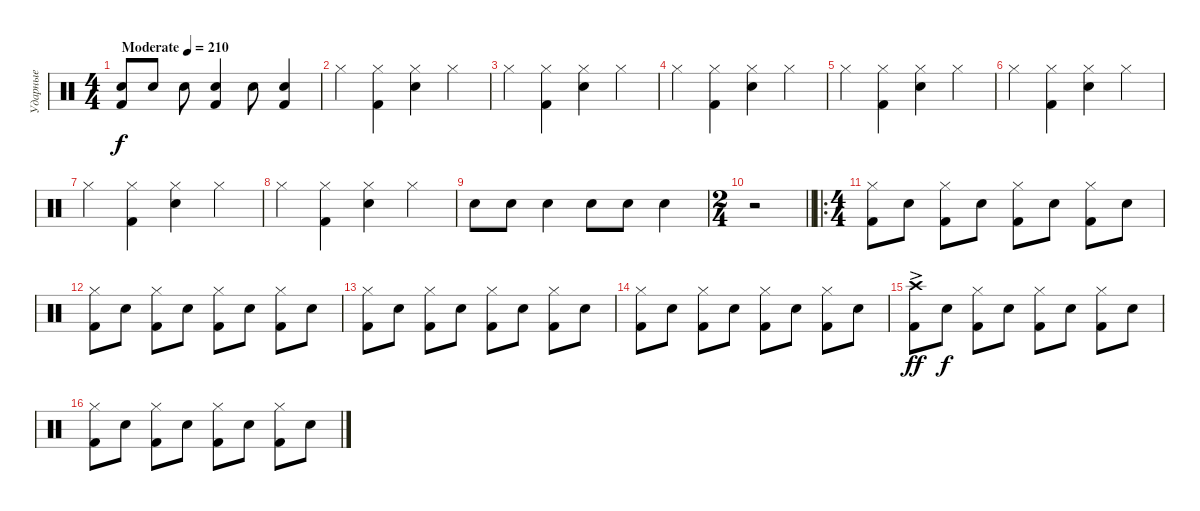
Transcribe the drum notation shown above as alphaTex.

\track ("Ударные" "Ударные") {instrument percussion}
\staff {score}
\articulation defaults
\ts (4 4)
\tempo (210 "Moderate")
\clef neutral
\ks c
("Kick (hit) 2" "Snare (hit) 2").8{dy f} "Snare (hit) 2".8 "Snare (hit) 2".8 ("Kick (hit) 2" "Snare (hit) 2").4 "Snare (hit) 2".8 ("Kick (hit) 2" "Snare (hit) 2").4 |
"Hi-Hat (closed)".4 ("Kick (hit) 2" "Hi-Hat (closed)").4 ("Snare (hit) 2" "Hi-Hat (closed)").4 "Hi-Hat (closed)".4 |
"Hi-Hat (closed)".4 ("Kick (hit) 2" "Hi-Hat (closed)").4 ("Snare (hit) 2" "Hi-Hat (closed)").4 "Hi-Hat (closed)".4 |
"Hi-Hat (closed)".4 ("Kick (hit) 2" "Hi-Hat (closed)").4 ("Snare (hit) 2" "Hi-Hat (closed)").4 "Hi-Hat (closed)".4 |
"Hi-Hat (closed)".4 ("Kick (hit) 2" "Hi-Hat (closed)").4 ("Snare (hit) 2" "Hi-Hat (closed)").4 "Hi-Hat (closed)".4 |
"Hi-Hat (closed)".4 ("Kick (hit) 2" "Hi-Hat (closed)").4 ("Snare (hit) 2" "Hi-Hat (closed)").4 "Hi-Hat (closed)".4 |
"Hi-Hat (closed)".4 ("Kick (hit) 2" "Hi-Hat (closed)").4 ("Snare (hit) 2" "Hi-Hat (closed)").4 "Hi-Hat (closed)".4 |
"Hi-Hat (closed)".4 ("Kick (hit) 2" "Hi-Hat (closed)").4 ("Snare (hit) 2" "Hi-Hat (closed)").4 "Hi-Hat (closed)".4 |
"Snare (hit) 2".8 "Snare (hit) 2".8 "Snare (hit) 2".4 "Snare (hit) 2".8 "Snare (hit) 2".8 "Snare (hit) 2".4 |
\ts (2 4)
\barLineRight lightlight
r.2 |
\ro
\ts (4 4)
("Kick (hit) 2" "Hi-Hat (closed)").8 "Snare (hit) 2".8 ("Kick (hit) 2" "Hi-Hat (closed)").8 "Snare (hit) 2".8 ("Kick (hit) 2" "Hi-Hat (closed)").8 "Snare (hit) 2".8 ("Kick (hit) 2" "Hi-Hat (closed)").8 "Snare (hit) 2".8 |
("Kick (hit) 2" "Hi-Hat (closed)").8 "Snare (hit) 2".8 ("Kick (hit) 2" "Hi-Hat (closed)").8 "Snare (hit) 2".8 ("Kick (hit) 2" "Hi-Hat (closed)").8 "Snare (hit) 2".8 ("Kick (hit) 2" "Hi-Hat (closed)").8 "Snare (hit) 2".8 |
("Kick (hit) 2" "Hi-Hat (closed)").8 "Snare (hit) 2".8 ("Kick (hit) 2" "Hi-Hat (closed)").8 "Snare (hit) 2".8 ("Kick (hit) 2" "Hi-Hat (closed)").8 "Snare (hit) 2".8 ("Kick (hit) 2" "Hi-Hat (closed)").8 "Snare (hit) 2".8 |
("Kick (hit) 2" "Hi-Hat (closed)").8 "Snare (hit) 2".8 ("Kick (hit) 2" "Hi-Hat (closed)").8 "Snare (hit) 2".8 ("Kick (hit) 2" "Hi-Hat (closed)").8 "Snare (hit) 2".8 ("Kick (hit) 2" "Hi-Hat (closed)").8 "Snare (hit) 2".8 |
("Kick (hit) 2" "Crash high (hit)"{ac}).8{dy ff} "Snare (hit) 2".8{dy f} ("Kick (hit) 2" "Hi-Hat (closed)").8 "Snare (hit) 2".8 ("Kick (hit) 2" "Hi-Hat (closed)").8 "Snare (hit) 2".8 ("Kick (hit) 2" "Hi-Hat (closed)").8 "Snare (hit) 2".8 |
("Kick (hit) 2" "Hi-Hat (closed)").8 "Snare (hit) 2".8 ("Kick (hit) 2" "Hi-Hat (closed)").8 "Snare (hit) 2".8 ("Kick (hit) 2" "Hi-Hat (closed)").8 "Snare (hit) 2".8 ("Kick (hit) 2" "Hi-Hat (closed)").8 "Snare (hit) 2".8
